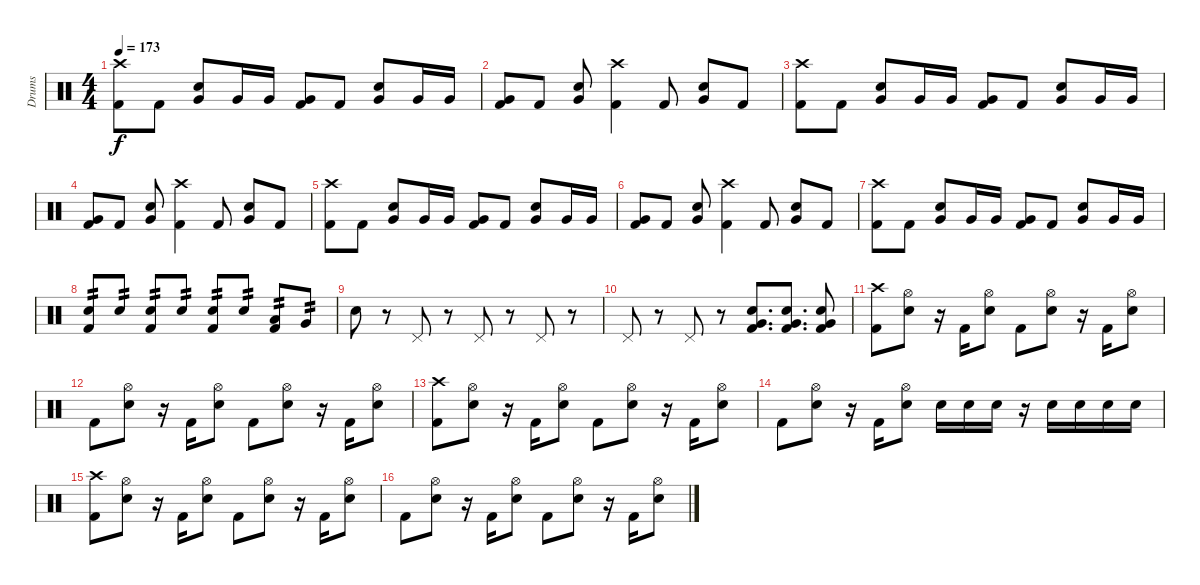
\track ("Drums" "Drums") {instrument percussion}
\staff {score}
\articulation defaults
\ts (4 4)
\tempo 173
\clef neutral
\ks c
("Crash high (hit)" "Kick (hit) 2").8{dy f} "Kick (hit) 2".8 ("Very Low Tom (hit)" "Electric Snare (hit)").8 "Very Low Tom (hit)".16 "Very Low Tom (hit)".16 ("Very Low Tom (hit)" "Kick (hit) 2").8 "Kick (hit) 2".8 ("Very Low Tom (hit)" "Electric Snare (hit)").8 "Very Low Tom (hit)".16 "Very Low Tom (hit)".16 |
("Very Low Tom (hit)" "Kick (hit) 2").8 "Kick (hit) 2".8 ("Very Low Tom (hit)" "Electric Snare (hit)").8 ("Crash high (hit)" "Kick (hit) 2").4 "Kick (hit) 2".8 ("Very Low Tom (hit)" "Electric Snare (hit)").8 "Kick (hit) 2".8 |
("Crash high (hit)" "Kick (hit) 2").8 "Kick (hit) 2".8 ("Very Low Tom (hit)" "Electric Snare (hit)").8 "Very Low Tom (hit)".16 "Very Low Tom (hit)".16 ("Very Low Tom (hit)" "Kick (hit) 2").8 "Kick (hit) 2".8 ("Very Low Tom (hit)" "Electric Snare (hit)").8 "Very Low Tom (hit)".16 "Very Low Tom (hit)".16 |
("Very Low Tom (hit)" "Kick (hit) 2").8 "Kick (hit) 2".8 ("Very Low Tom (hit)" "Electric Snare (hit)").8 ("Crash high (hit)" "Kick (hit) 2").4 "Kick (hit) 2".8 ("Very Low Tom (hit)" "Electric Snare (hit)").8 "Kick (hit) 2".8 |
("Crash high (hit)" "Kick (hit) 2").8 "Kick (hit) 2".8 ("Very Low Tom (hit)" "Electric Snare (hit)").8 "Very Low Tom (hit)".16 "Very Low Tom (hit)".16 ("Very Low Tom (hit)" "Kick (hit) 2").8 "Kick (hit) 2".8 ("Very Low Tom (hit)" "Electric Snare (hit)").8 "Very Low Tom (hit)".16 "Very Low Tom (hit)".16 |
("Very Low Tom (hit)" "Kick (hit) 2").8 "Kick (hit) 2".8 ("Very Low Tom (hit)" "Electric Snare (hit)").8 ("Crash high (hit)" "Kick (hit) 2").4 "Kick (hit) 2".8 ("Very Low Tom (hit)" "Electric Snare (hit)").8 "Kick (hit) 2".8 |
("Crash high (hit)" "Kick (hit) 2").8 "Kick (hit) 2".8 ("Very Low Tom (hit)" "Electric Snare (hit)").8 "Very Low Tom (hit)".16 "Very Low Tom (hit)".16 ("Very Low Tom (hit)" "Kick (hit) 2").8 "Kick (hit) 2".8 ("Very Low Tom (hit)" "Electric Snare (hit)").8 "Very Low Tom (hit)".16 "Very Low Tom (hit)".16 |
("Electric Snare (hit)" "Kick (hit) 2").8{tp 2} "Electric Snare (hit)".8{tp 2} ("Electric Snare (hit)" "Kick (hit) 2").8{tp 2} "Electric Snare (hit)".8{tp 2} ("Electric Snare (hit)" "Kick (hit) 2").8{tp 2} "Electric Snare (hit)".8{tp 2} ("Low Tom (hit)" "Kick (hit) 2").8{tp 2} "Very Low Tom (hit)".8{tp 2} |
"Electric Snare (hit)".8 r.8 "Pedal Hi-Hat (hit)".8 r.8 "Pedal Hi-Hat (hit)".8 r.8 "Pedal Hi-Hat (hit)".8 r.8 |
"Pedal Hi-Hat (hit)".8 r.8 "Pedal Hi-Hat (hit)".8 r.8 ("Very Low Tom (hit)" "Electric Snare (hit)" "Kick (hit) 2").8{d} ("Very Low Tom (hit)" "Electric Snare (hit)" "Kick (hit) 2").8{d} ("Very Low Tom (hit)" "Electric Snare (hit)" "Kick (hit) 2").8 |
("Crash high (hit)" "Kick (hit) 2").8 ("Hi-Hat (open)" "Electric Snare (hit)").8 r.16 "Kick (hit) 2".16 ("Hi-Hat (open)" "Electric Snare (hit)").8 "Kick (hit) 2".8 ("Hi-Hat (open)" "Electric Snare (hit)").8 r.16 "Kick (hit) 2".16 ("Hi-Hat (open)" "Electric Snare (hit)").8 |
"Kick (hit) 2".8 ("Hi-Hat (open)" "Electric Snare (hit)").8 r.16 "Kick (hit) 2".16 ("Hi-Hat (open)" "Electric Snare (hit)").8 "Kick (hit) 2".8 ("Hi-Hat (open)" "Electric Snare (hit)").8 r.16 "Kick (hit) 2".16 ("Hi-Hat (open)" "Electric Snare (hit)").8 |
("Crash high (hit)" "Kick (hit) 2").8 ("Hi-Hat (open)" "Electric Snare (hit)").8 r.16 "Kick (hit) 2".16 ("Hi-Hat (open)" "Electric Snare (hit)").8 "Kick (hit) 2".8 ("Hi-Hat (open)" "Electric Snare (hit)").8 r.16 "Kick (hit) 2".16 ("Hi-Hat (open)" "Electric Snare (hit)").8 |
"Kick (hit) 2".8 ("Hi-Hat (open)" "Electric Snare (hit)").8 r.16 "Kick (hit) 2".16 ("Hi-Hat (open)" "Electric Snare (hit)").8 "Electric Snare (hit)".16 "Electric Snare (hit)".16 "Electric Snare (hit)".16 r.16 "Electric Snare (hit)".16 "Electric Snare (hit)".16 "Electric Snare (hit)".16 "Electric Snare (hit)".16 |
("Crash high (hit)" "Kick (hit) 2").8 ("Hi-Hat (open)" "Electric Snare (hit)").8 r.16 "Kick (hit) 2".16 ("Hi-Hat (open)" "Electric Snare (hit)").8 "Kick (hit) 2".8 ("Hi-Hat (open)" "Electric Snare (hit)").8 r.16 "Kick (hit) 2".16 ("Hi-Hat (open)" "Electric Snare (hit)").8 |
"Kick (hit) 2".8 ("Hi-Hat (open)" "Electric Snare (hit)").8 r.16 "Kick (hit) 2".16 ("Hi-Hat (open)" "Electric Snare (hit)").8 "Kick (hit) 2".8 ("Hi-Hat (open)" "Electric Snare (hit)").8 r.16 "Kick (hit) 2".16 ("Hi-Hat (open)" "Electric Snare (hit)").8
